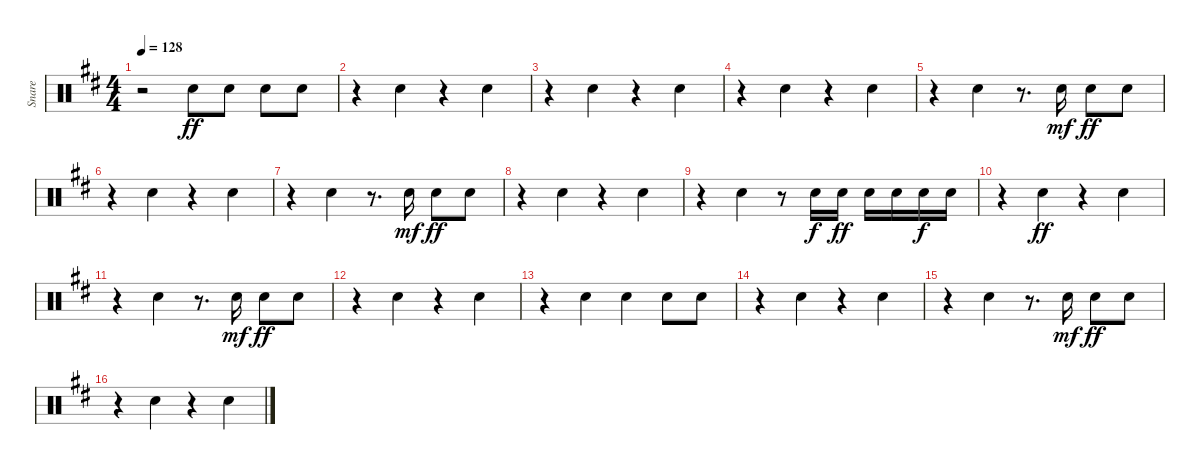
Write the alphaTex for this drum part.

\track ("Snare" "Snare") {instrument percussion}
\staff {score}
\articulation defaults
\ts (4 4)
\tempo 128
\clef neutral
\ks bminor
r.2{dy ff} "Electric Snare (hit)".8 "Electric Snare (hit)".8 "Electric Snare (hit)".8 "Electric Snare (hit)".8 |
r.4{beam merge} "Electric Snare (hit)".4 r.4{beam merge} "Electric Snare (hit)".4 |
r.4{beam merge} "Electric Snare (hit)".4 r.4{beam merge} "Electric Snare (hit)".4 |
r.4{beam merge} "Electric Snare (hit)".4 r.4{beam merge} "Electric Snare (hit)".4 |
r.4{beam merge} "Electric Snare (hit)".4 r.8{d} "Electric Snare (hit)".16{dy mf beam split} "Electric Snare (hit)".8{dy ff} "Electric Snare (hit)".8 |
r.4{beam merge} "Electric Snare (hit)".4 r.4{beam merge} "Electric Snare (hit)".4 |
r.4{beam merge} "Electric Snare (hit)".4 r.8{d} "Electric Snare (hit)".16{dy mf beam split} "Electric Snare (hit)".8{dy ff} "Electric Snare (hit)".8 |
r.4{beam merge} "Electric Snare (hit)".4 r.4{beam merge} "Electric Snare (hit)".4 |
r.4{beam merge} "Electric Snare (hit)".4 r.8 "Electric Snare (hit)".16{dy f} "Electric Snare (hit)".16{dy ff} "Electric Snare (hit)".16 "Electric Snare (hit)".16 "Electric Snare (hit)".16{dy f} "Electric Snare (hit)".16 |
r.4{beam merge} "Electric Snare (hit)".4{dy ff} r.4{beam merge} "Electric Snare (hit)".4 |
r.4{beam merge} "Electric Snare (hit)".4 r.8{d} "Electric Snare (hit)".16{dy mf beam split} "Electric Snare (hit)".8{dy ff} "Electric Snare (hit)".8 |
r.4{beam merge} "Electric Snare (hit)".4 r.4{beam merge} "Electric Snare (hit)".4 |
r.4{beam merge} "Electric Snare (hit)".4 "Electric Snare (hit)".4{beam merge} "Electric Snare (hit)".8 "Electric Snare (hit)".8 |
r.4{beam merge} "Electric Snare (hit)".4 r.4{beam merge} "Electric Snare (hit)".4 |
r.4{beam merge} "Electric Snare (hit)".4 r.8{d} "Electric Snare (hit)".16{dy mf beam split} "Electric Snare (hit)".8{dy ff} "Electric Snare (hit)".8 |
r.4{beam merge} "Electric Snare (hit)".4 r.4{beam merge} "Electric Snare (hit)".4
